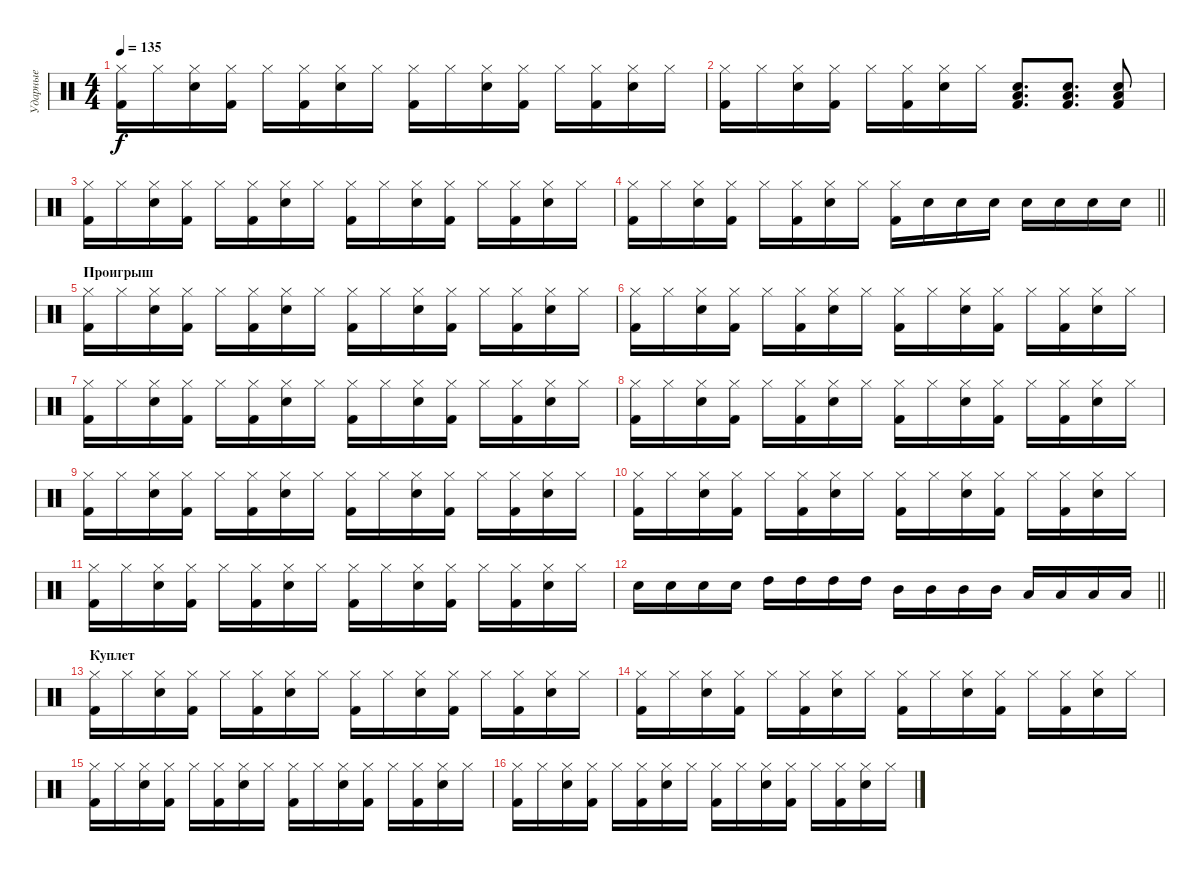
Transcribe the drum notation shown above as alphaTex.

\track ("Ударные" "Ударные") {instrument percussion}
\staff {score}
\articulation defaults
\ts (4 4)
\tempo 135
\clef neutral
\ks c
("Hi-Hat (closed)" "Kick (hit) 2").16{dy f} "Hi-Hat (closed)".16 ("Hi-Hat (closed)" "Snare (hit) 2").16 ("Hi-Hat (closed)" "Kick (hit) 2").16 "Hi-Hat (closed)".16 ("Hi-Hat (closed)" "Kick (hit) 2").16 ("Hi-Hat (closed)" "Snare (hit) 2").16 "Hi-Hat (closed)".16 ("Hi-Hat (closed)" "Kick (hit) 2").16 "Hi-Hat (closed)".16 ("Hi-Hat (closed)" "Snare (hit) 2").16 ("Hi-Hat (closed)" "Kick (hit) 2").16 "Hi-Hat (closed)".16 ("Hi-Hat (closed)" "Kick (hit) 2").16 ("Hi-Hat (closed)" "Snare (hit) 2").16 "Hi-Hat (closed)".16 |
("Hi-Hat (closed)" "Kick (hit) 2").16 "Hi-Hat (closed)".16 ("Hi-Hat (closed)" "Snare (hit) 2").16 ("Hi-Hat (closed)" "Kick (hit) 2").16 "Hi-Hat (closed)".16 ("Hi-Hat (closed)" "Kick (hit) 2").16 ("Hi-Hat (closed)" "Snare (hit) 2").16 "Hi-Hat (closed)".16 ("Snare (hit) 2" "Low Tom (hit)" "Kick (hit) 2").8{d} ("Snare (hit) 2" "Low Tom (hit)" "Kick (hit) 2").8{d} ("Snare (hit) 2" "Low Tom (hit)" "Kick (hit) 2").8 |
("Hi-Hat (closed)" "Kick (hit) 2").16 "Hi-Hat (closed)".16 ("Hi-Hat (closed)" "Snare (hit) 2").16 ("Hi-Hat (closed)" "Kick (hit) 2").16 "Hi-Hat (closed)".16 ("Hi-Hat (closed)" "Kick (hit) 2").16 ("Hi-Hat (closed)" "Snare (hit) 2").16 "Hi-Hat (closed)".16 ("Hi-Hat (closed)" "Kick (hit) 2").16 "Hi-Hat (closed)".16 ("Hi-Hat (closed)" "Snare (hit) 2").16 ("Hi-Hat (closed)" "Kick (hit) 2").16 "Hi-Hat (closed)".16 ("Hi-Hat (closed)" "Kick (hit) 2").16 ("Hi-Hat (closed)" "Snare (hit) 2").16 "Hi-Hat (closed)".16 |
\barLineRight lightlight
("Hi-Hat (closed)" "Kick (hit) 2").16 "Hi-Hat (closed)".16 ("Hi-Hat (closed)" "Snare (hit) 2").16 ("Hi-Hat (closed)" "Kick (hit) 2").16 "Hi-Hat (closed)".16 ("Hi-Hat (closed)" "Kick (hit) 2").16 ("Hi-Hat (closed)" "Snare (hit) 2").16 "Hi-Hat (closed)".16 ("Hi-Hat (closed)" "Kick (hit) 2").16 "Snare (hit) 2".16 "Snare (hit) 2".16 "Snare (hit) 2".16 "Snare (hit) 2".16 "Snare (hit) 2".16 "Snare (hit) 2".16 "Snare (hit) 2".16 |
\section ("" "Проигрыш")
("Hi-Hat (closed)" "Kick (hit) 2").16 "Hi-Hat (closed)".16 ("Hi-Hat (closed)" "Snare (hit) 2").16 ("Hi-Hat (closed)" "Kick (hit) 2").16 "Hi-Hat (closed)".16 ("Hi-Hat (closed)" "Kick (hit) 2").16 ("Hi-Hat (closed)" "Snare (hit) 2").16 "Hi-Hat (closed)".16 ("Hi-Hat (closed)" "Kick (hit) 2").16 "Hi-Hat (closed)".16 ("Hi-Hat (closed)" "Snare (hit) 2").16 ("Hi-Hat (closed)" "Kick (hit) 2").16 "Hi-Hat (closed)".16 ("Hi-Hat (closed)" "Kick (hit) 2").16 ("Hi-Hat (closed)" "Snare (hit) 2").16 "Hi-Hat (closed)".16 |
("Hi-Hat (closed)" "Kick (hit) 2").16 "Hi-Hat (closed)".16 ("Hi-Hat (closed)" "Snare (hit) 2").16 ("Hi-Hat (closed)" "Kick (hit) 2").16 "Hi-Hat (closed)".16 ("Hi-Hat (closed)" "Kick (hit) 2").16 ("Hi-Hat (closed)" "Snare (hit) 2").16 "Hi-Hat (closed)".16 ("Hi-Hat (closed)" "Kick (hit) 2").16 "Hi-Hat (closed)".16 ("Hi-Hat (closed)" "Snare (hit) 2").16 ("Hi-Hat (closed)" "Kick (hit) 2").16 "Hi-Hat (closed)".16 ("Hi-Hat (closed)" "Kick (hit) 2").16 ("Hi-Hat (closed)" "Snare (hit) 2").16 "Hi-Hat (closed)".16 |
("Hi-Hat (closed)" "Kick (hit) 2").16 "Hi-Hat (closed)".16 ("Hi-Hat (closed)" "Snare (hit) 2").16 ("Hi-Hat (closed)" "Kick (hit) 2").16 "Hi-Hat (closed)".16 ("Hi-Hat (closed)" "Kick (hit) 2").16 ("Hi-Hat (closed)" "Snare (hit) 2").16 "Hi-Hat (closed)".16 ("Hi-Hat (closed)" "Kick (hit) 2").16 "Hi-Hat (closed)".16 ("Hi-Hat (closed)" "Snare (hit) 2").16 ("Hi-Hat (closed)" "Kick (hit) 2").16 "Hi-Hat (closed)".16 ("Hi-Hat (closed)" "Kick (hit) 2").16 ("Hi-Hat (closed)" "Snare (hit) 2").16 "Hi-Hat (closed)".16 |
("Hi-Hat (closed)" "Kick (hit) 2").16 "Hi-Hat (closed)".16 ("Hi-Hat (closed)" "Snare (hit) 2").16 ("Hi-Hat (closed)" "Kick (hit) 2").16 "Hi-Hat (closed)".16 ("Hi-Hat (closed)" "Kick (hit) 2").16 ("Hi-Hat (closed)" "Snare (hit) 2").16 "Hi-Hat (closed)".16 ("Hi-Hat (closed)" "Kick (hit) 2").16 "Hi-Hat (closed)".16 ("Hi-Hat (closed)" "Snare (hit) 2").16 ("Hi-Hat (closed)" "Kick (hit) 2").16 "Hi-Hat (closed)".16 ("Hi-Hat (closed)" "Kick (hit) 2").16 ("Hi-Hat (closed)" "Snare (hit) 2").16 "Hi-Hat (closed)".16 |
("Hi-Hat (closed)" "Kick (hit) 2").16 "Hi-Hat (closed)".16 ("Hi-Hat (closed)" "Snare (hit) 2").16 ("Hi-Hat (closed)" "Kick (hit) 2").16 "Hi-Hat (closed)".16 ("Hi-Hat (closed)" "Kick (hit) 2").16 ("Hi-Hat (closed)" "Snare (hit) 2").16 "Hi-Hat (closed)".16 ("Hi-Hat (closed)" "Kick (hit) 2").16 "Hi-Hat (closed)".16 ("Hi-Hat (closed)" "Snare (hit) 2").16 ("Hi-Hat (closed)" "Kick (hit) 2").16 "Hi-Hat (closed)".16 ("Hi-Hat (closed)" "Kick (hit) 2").16 ("Hi-Hat (closed)" "Snare (hit) 2").16 "Hi-Hat (closed)".16 |
("Hi-Hat (closed)" "Kick (hit) 2").16 "Hi-Hat (closed)".16 ("Hi-Hat (closed)" "Snare (hit) 2").16 ("Hi-Hat (closed)" "Kick (hit) 2").16 "Hi-Hat (closed)".16 ("Hi-Hat (closed)" "Kick (hit) 2").16 ("Hi-Hat (closed)" "Snare (hit) 2").16 "Hi-Hat (closed)".16 ("Hi-Hat (closed)" "Kick (hit) 2").16 "Hi-Hat (closed)".16 ("Hi-Hat (closed)" "Snare (hit) 2").16 ("Hi-Hat (closed)" "Kick (hit) 2").16 "Hi-Hat (closed)".16 ("Hi-Hat (closed)" "Kick (hit) 2").16 ("Hi-Hat (closed)" "Snare (hit) 2").16 "Hi-Hat (closed)".16 |
("Hi-Hat (closed)" "Kick (hit) 2").16 "Hi-Hat (closed)".16 ("Hi-Hat (closed)" "Snare (hit) 2").16 ("Hi-Hat (closed)" "Kick (hit) 2").16 "Hi-Hat (closed)".16 ("Hi-Hat (closed)" "Kick (hit) 2").16 ("Hi-Hat (closed)" "Snare (hit) 2").16 "Hi-Hat (closed)".16 ("Hi-Hat (closed)" "Kick (hit) 2").16 "Hi-Hat (closed)".16 ("Hi-Hat (closed)" "Snare (hit) 2").16 ("Hi-Hat (closed)" "Kick (hit) 2").16 "Hi-Hat (closed)".16 ("Hi-Hat (closed)" "Kick (hit) 2").16 ("Hi-Hat (closed)" "Snare (hit) 2").16 "Hi-Hat (closed)".16 |
\barLineRight lightlight "Snare (hit) 2".16 "Snare (hit) 2".16 "Snare (hit) 2".16 "Snare (hit) 2".16 "High Tom (hit)".16 "High Tom (hit)".16 "High Tom (hit)".16 "High Tom (hit)".16 "Mid Tom (hit)".16 "Mid Tom (hit)".16 "Mid Tom (hit)".16 "Mid Tom (hit)".16 "Low Tom (hit)".16 "Low Tom (hit)".16 "Low Tom (hit)".16 "Low Tom (hit)".16
|
\section ("" "Куплет")
("Hi-Hat (closed)" "Kick (hit) 2").16 "Hi-Hat (closed)".16 ("Hi-Hat (closed)" "Snare (hit) 2").16 ("Hi-Hat (closed)" "Kick (hit) 2").16 "Hi-Hat (closed)".16 ("Hi-Hat (closed)" "Kick (hit) 2").16 ("Hi-Hat (closed)" "Snare (hit) 2").16 "Hi-Hat (closed)".16 ("Hi-Hat (closed)" "Kick (hit) 2").16 "Hi-Hat (closed)".16 ("Hi-Hat (closed)" "Snare (hit) 2").16 ("Hi-Hat (closed)" "Kick (hit) 2").16 "Hi-Hat (closed)".16 ("Hi-Hat (closed)" "Kick (hit) 2").16 ("Hi-Hat (closed)" "Snare (hit) 2").16 "Hi-Hat (closed)".16 |
("Hi-Hat (closed)" "Kick (hit) 2").16 "Hi-Hat (closed)".16 ("Hi-Hat (closed)" "Snare (hit) 2").16 ("Hi-Hat (closed)" "Kick (hit) 2").16 "Hi-Hat (closed)".16 ("Hi-Hat (closed)" "Kick (hit) 2").16 ("Hi-Hat (closed)" "Snare (hit) 2").16 "Hi-Hat (closed)".16 ("Hi-Hat (closed)" "Kick (hit) 2").16 "Hi-Hat (closed)".16 ("Hi-Hat (closed)" "Snare (hit) 2").16 ("Hi-Hat (closed)" "Kick (hit) 2").16 "Hi-Hat (closed)".16 ("Hi-Hat (closed)" "Kick (hit) 2").16 ("Hi-Hat (closed)" "Snare (hit) 2").16 "Hi-Hat (closed)".16 |
("Hi-Hat (closed)" "Kick (hit) 2").16 "Hi-Hat (closed)".16 ("Hi-Hat (closed)" "Snare (hit) 2").16 ("Hi-Hat (closed)" "Kick (hit) 2").16 "Hi-Hat (closed)".16 ("Hi-Hat (closed)" "Kick (hit) 2").16 ("Hi-Hat (closed)" "Snare (hit) 2").16 "Hi-Hat (closed)".16 ("Hi-Hat (closed)" "Kick (hit) 2").16 "Hi-Hat (closed)".16 ("Hi-Hat (closed)" "Snare (hit) 2").16 ("Hi-Hat (closed)" "Kick (hit) 2").16 "Hi-Hat (closed)".16 ("Hi-Hat (closed)" "Kick (hit) 2").16 ("Hi-Hat (closed)" "Snare (hit) 2").16 "Hi-Hat (closed)".16 |
("Hi-Hat (closed)" "Kick (hit) 2").16 "Hi-Hat (closed)".16 ("Hi-Hat (closed)" "Snare (hit) 2").16 ("Hi-Hat (closed)" "Kick (hit) 2").16 "Hi-Hat (closed)".16 ("Hi-Hat (closed)" "Kick (hit) 2").16 ("Hi-Hat (closed)" "Snare (hit) 2").16 "Hi-Hat (closed)".16 ("Hi-Hat (closed)" "Kick (hit) 2").16 "Hi-Hat (closed)".16 ("Hi-Hat (closed)" "Snare (hit) 2").16 ("Hi-Hat (closed)" "Kick (hit) 2").16 "Hi-Hat (closed)".16 ("Hi-Hat (closed)" "Kick (hit) 2").16 ("Hi-Hat (closed)" "Snare (hit) 2").16 "Hi-Hat (closed)".16
